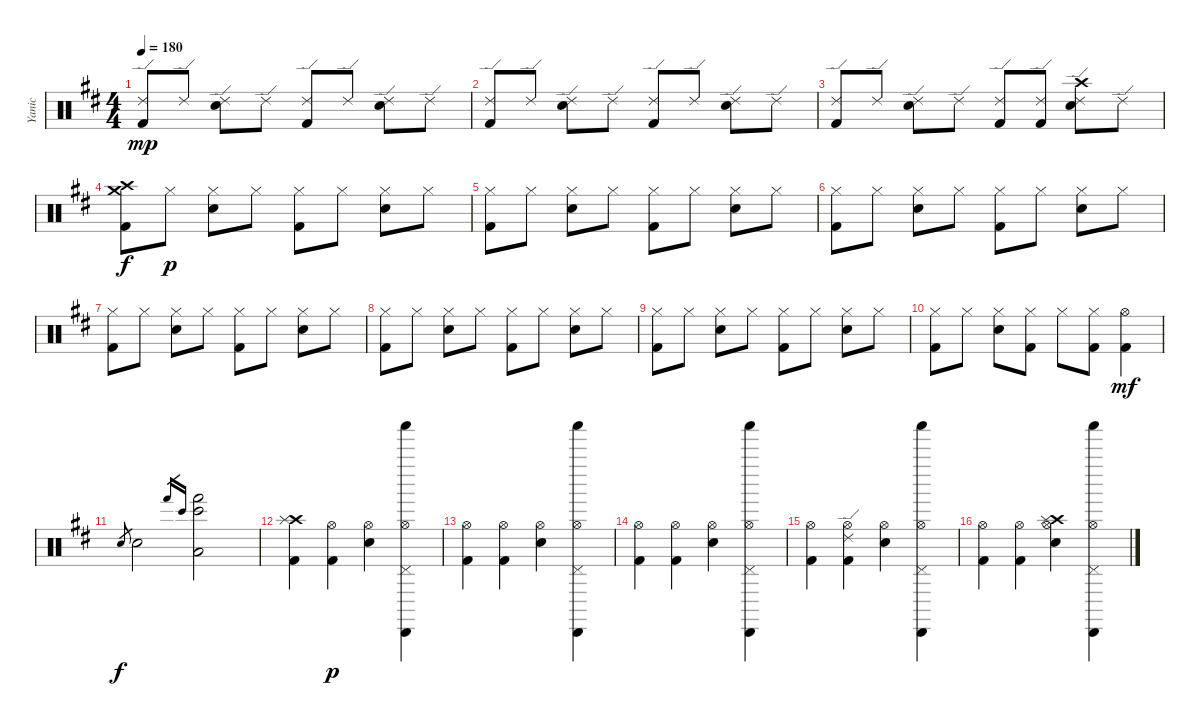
\track ("Yanic" "Yanic") {instrument percussion}
\staff {score}
\articulation defaults
\ts (4 4)
\tempo 180
\clef neutral
\ks d
("Kick (hit) 2" "Ride (edge) 2").8{dy mp} "Ride (edge) 2".8 ("Electric Snare (hit)" "Ride (edge) 2").8 "Ride (edge) 2".8 ("Kick (hit) 2" "Ride (edge) 2").8 "Ride (edge) 2".8 ("Electric Snare (hit)" "Ride (edge) 2").8 "Ride (edge) 2".8 |
("Kick (hit) 2" "Ride (edge) 2").8 "Ride (edge) 2".8 ("Electric Snare (hit)" "Ride (edge) 2").8 "Ride (edge) 2".8 ("Kick (hit) 2" "Ride (edge) 2").8 "Ride (edge) 2".8 ("Electric Snare (hit)" "Ride (edge) 2").8 "Ride (edge) 2".8 |
("Kick (hit) 2" "Ride (edge) 2").8 "Ride (edge) 2".8 ("Electric Snare (hit)" "Ride (edge) 2").8 "Ride (edge) 2".8 ("Kick (hit) 2" "Ride (edge) 2").8 ("Kick (hit) 2" "Ride (edge) 2").8 ("Electric Snare (hit)" "Ride (edge) 2" "Crash high (hit)").8 "Ride (edge) 2".8 |
("Kick (hit) 2" "Crash high (hit)" "Crash medium (hit)").8{dy f} "Hi-Hat (closed)".8{dy p} ("Electric Snare (hit)" "Hi-Hat (closed)").8 "Hi-Hat (closed)".8 ("Kick (hit) 2" "Hi-Hat (closed)").8 "Hi-Hat (closed)".8 ("Electric Snare (hit)" "Hi-Hat (closed)").8 "Hi-Hat (closed)".8 |
("Kick (hit) 2" "Hi-Hat (closed)").8 "Hi-Hat (closed)".8 ("Electric Snare (hit)" "Hi-Hat (closed)").8 "Hi-Hat (closed)".8 ("Kick (hit) 2" "Hi-Hat (closed)").8 "Hi-Hat (closed)".8 ("Electric Snare (hit)" "Hi-Hat (closed)").8 "Hi-Hat (closed)".8 |
("Kick (hit) 2" "Hi-Hat (closed)").8 "Hi-Hat (closed)".8 ("Electric Snare (hit)" "Hi-Hat (closed)").8 "Hi-Hat (closed)".8 ("Kick (hit) 2" "Hi-Hat (closed)").8 "Hi-Hat (closed)".8 ("Electric Snare (hit)" "Hi-Hat (closed)").8 "Hi-Hat (closed)".8 |
("Kick (hit) 2" "Hi-Hat (closed)").8 "Hi-Hat (closed)".8 ("Electric Snare (hit)" "Hi-Hat (closed)").8 "Hi-Hat (closed)".8 ("Kick (hit) 2" "Hi-Hat (closed)").8 "Hi-Hat (closed)".8 ("Electric Snare (hit)" "Hi-Hat (closed)").8 "Hi-Hat (closed)".8 |
("Kick (hit) 2" "Hi-Hat (closed)").8 "Hi-Hat (closed)".8 ("Electric Snare (hit)" "Hi-Hat (closed)").8 "Hi-Hat (closed)".8 ("Kick (hit) 2" "Hi-Hat (closed)").8 "Hi-Hat (closed)".8 ("Electric Snare (hit)" "Hi-Hat (closed)").8 "Hi-Hat (closed)".8 |
("Kick (hit) 2" "Hi-Hat (closed)").8 "Hi-Hat (closed)".8 ("Electric Snare (hit)" "Hi-Hat (closed)").8 "Hi-Hat (closed)".8 ("Kick (hit) 2" "Hi-Hat (closed)").8 "Hi-Hat (closed)".8 ("Electric Snare (hit)" "Hi-Hat (closed)").8 "Hi-Hat (closed)".8 |
("Kick (hit) 2" "Hi-Hat (closed)").8 "Hi-Hat (closed)".8 ("Electric Snare (hit)" "Hi-Hat (closed)").8 ("Kick (hit) 2" "Hi-Hat (closed)").8 "Hi-Hat (closed)".8 ("Kick (hit) 2" "Hi-Hat (closed)").8 ("Kick (hit) 2" "Hi-Hat (open)").4{dy mf} |
"Electric Snare (hit)".8{gr dy f} "Electric Snare (hit)".2 "Hand (hit)".16{gr} "Bongo High (hit)".16{gr} ("Hand (hit)" "Bongo High (hit)" "Low Floor Tom (hit)").2 |
("Kick (hit) 2" "Crash high (hit)" "Splash (hit)").4 ("Kick (hit) 2" "Hi-Hat (open)").4{dy p} ("Electric Snare (hit)" "Hi-Hat (open)").4 ("Cabasa (hit)" "Shaker (hit)" "Pedal Hi-Hat (hit)" "Hi-Hat (open)").4 |
("Kick (hit) 2" "Hi-Hat (open)").4 ("Kick (hit) 2" "Hi-Hat (open)").4 ("Electric Snare (hit)" "Hi-Hat (open)").4 ("Cabasa (hit)" "Shaker (hit)" "Pedal Hi-Hat (hit)" "Hi-Hat (open)").4 |
("Kick (hit) 2" "Hi-Hat (open)").4 ("Kick (hit) 2" "Hi-Hat (open)").4 ("Electric Snare (hit)" "Hi-Hat (open)").4 ("Cabasa (hit)" "Shaker (hit)" "Pedal Hi-Hat (hit)" "Hi-Hat (open)").4 |
("Kick (hit) 2" "Hi-Hat (open)").4 ("Kick (hit) 2" "Hi-Hat (open)" "Ride (edge) 2").4 ("Electric Snare (hit)" "Hi-Hat (open)").4 ("Cabasa (hit)" "Shaker (hit)" "Pedal Hi-Hat (hit)" "Hi-Hat (open)").4 |
("Kick (hit) 2" "Hi-Hat (open)").4 ("Kick (hit) 2" "Hi-Hat (open)").4 ("Electric Snare (hit)" "Hi-Hat (open)" "Crash high (hit)" "Splash (hit)").4 ("Cabasa (hit)" "Shaker (hit)" "Pedal Hi-Hat (hit)" "Hi-Hat (open)").4
